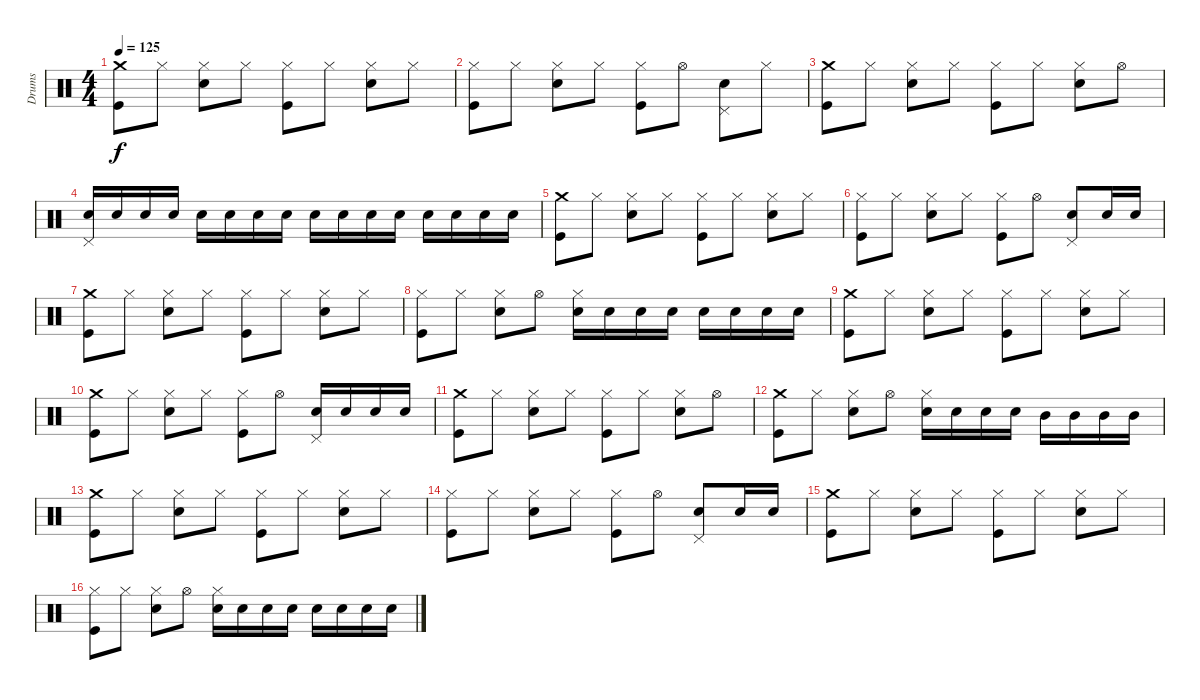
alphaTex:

\track ("Drums" "Drums") {instrument percussion}
\staff {score}
\articulation defaults
\ts (4 4)
\tempo 125
\clef neutral
\ks c
("Crash medium (hit)" "Kick (hit)").8{dy f} "Hi-Hat (closed)".8 ("Hi-Hat (closed)" "Electric Snare (hit)").8 "Hi-Hat (closed)".8 ("Hi-Hat (closed)" "Kick (hit)").8 "Hi-Hat (closed)".8 ("Hi-Hat (closed)" "Electric Snare (hit)").8 "Hi-Hat (closed)".8 |
("Hi-Hat (closed)" "Kick (hit)").8 "Hi-Hat (closed)".8 ("Hi-Hat (closed)" "Electric Snare (hit)").8 "Hi-Hat (closed)".8 ("Hi-Hat (closed)" "Kick (hit)").8 "Hi-Hat (open)".8 ("Pedal Hi-Hat (hit)" "Electric Snare (hit)").8 "Hi-Hat (closed)".8 |
("Crash medium (hit)" "Kick (hit)").8 "Hi-Hat (closed)".8 ("Hi-Hat (closed)" "Electric Snare (hit)").8 "Hi-Hat (closed)".8 ("Hi-Hat (closed)" "Kick (hit)").8 "Hi-Hat (closed)".8 ("Hi-Hat (closed)" "Electric Snare (hit)").8 "Hi-Hat (open)".8 |
("Pedal Hi-Hat (hit)" "Electric Snare (hit)").16 "Electric Snare (hit)".16 "Electric Snare (hit)".16 "Electric Snare (hit)".16 "Electric Snare (hit)".16 "Electric Snare (hit)".16 "Electric Snare (hit)".16 "Electric Snare (hit)".16 "Electric Snare (hit)".16 "Electric Snare (hit)".16 "Electric Snare (hit)".16 "Electric Snare (hit)".16 "Electric Snare (hit)".16 "Electric Snare (hit)".16 "Electric Snare (hit)".16 "Electric Snare (hit)".16 |
("Crash medium (hit)" "Kick (hit)").8 "Hi-Hat (closed)".8 ("Hi-Hat (closed)" "Electric Snare (hit)").8 "Hi-Hat (closed)".8 ("Hi-Hat (closed)" "Kick (hit)").8 "Hi-Hat (closed)".8 ("Hi-Hat (closed)" "Electric Snare (hit)").8 "Hi-Hat (closed)".8 |
("Hi-Hat (closed)" "Kick (hit)").8 "Hi-Hat (closed)".8 ("Hi-Hat (closed)" "Electric Snare (hit)").8 "Hi-Hat (closed)".8 ("Hi-Hat (closed)" "Kick (hit)").8 "Hi-Hat (open)".8 ("Pedal Hi-Hat (hit)" "Electric Snare (hit)").8 "Electric Snare (hit)".16 "Electric Snare (hit)".16 |
("Crash medium (hit)" "Kick (hit)").8 "Hi-Hat (closed)".8 ("Hi-Hat (closed)" "Electric Snare (hit)").8 "Hi-Hat (closed)".8 ("Hi-Hat (closed)" "Kick (hit)").8 "Hi-Hat (closed)".8 ("Hi-Hat (closed)" "Electric Snare (hit)").8 "Hi-Hat (closed)".8 |
("Hi-Hat (closed)" "Kick (hit)").8 "Hi-Hat (closed)".8 ("Hi-Hat (closed)" "Electric Snare (hit)").8 "Hi-Hat (open)".8 ("Hi-Hat (closed)" "Electric Snare (hit)").16 "Electric Snare (hit)".16 "Electric Snare (hit)".16 "Electric Snare (hit)".16 "Electric Snare (hit)".16 "Electric Snare (hit)".16 "Electric Snare (hit)".16 "Electric Snare (hit)".16 |
("Crash medium (hit)" "Kick (hit)").8 "Hi-Hat (closed)".8 ("Hi-Hat (closed)" "Electric Snare (hit)").8 "Hi-Hat (closed)".8 ("Hi-Hat (closed)" "Kick (hit)").8 "Hi-Hat (closed)".8 ("Hi-Hat (closed)" "Electric Snare (hit)").8 "Hi-Hat (closed)".8 |
("Crash medium (hit)" "Kick (hit)").8 "Hi-Hat (closed)".8 ("Hi-Hat (closed)" "Electric Snare (hit)").8 "Hi-Hat (closed)".8 ("Hi-Hat (closed)" "Kick (hit)").8 "Hi-Hat (open)".8 ("Pedal Hi-Hat (hit)" "Electric Snare (hit)").16 "Electric Snare (hit)".16 "Electric Snare (hit)".16 "Electric Snare (hit)".16 |
("Crash medium (hit)" "Kick (hit)").8 "Hi-Hat (closed)".8 ("Hi-Hat (closed)" "Electric Snare (hit)").8 "Hi-Hat (closed)".8 ("Hi-Hat (closed)" "Kick (hit)").8 "Hi-Hat (closed)".8 ("Hi-Hat (closed)" "Electric Snare (hit)").8 "Hi-Hat (open)".8 |
("Crash medium (hit)" "Kick (hit)").8 "Hi-Hat (closed)".8 ("Hi-Hat (closed)" "Electric Snare (hit)").8 "Hi-Hat (open)".8 ("Hi-Hat (closed)" "Electric Snare (hit)").16 "Electric Snare (hit)".16 "Electric Snare (hit)".16 "Electric Snare (hit)".16 "Mid Tom (hit)".16 "Mid Tom (hit)".16 "Mid Tom (hit)".16 "Mid Tom (hit)".16 |
("Crash medium (hit)" "Kick (hit)").8 "Hi-Hat (closed)".8 ("Hi-Hat (closed)" "Electric Snare (hit)").8 "Hi-Hat (closed)".8 ("Hi-Hat (closed)" "Kick (hit)").8 "Hi-Hat (closed)".8 ("Hi-Hat (closed)" "Electric Snare (hit)").8 "Hi-Hat (closed)".8 |
("Hi-Hat (closed)" "Kick (hit)").8 "Hi-Hat (closed)".8 ("Hi-Hat (closed)" "Electric Snare (hit)").8 "Hi-Hat (closed)".8 ("Hi-Hat (closed)" "Kick (hit)").8 "Hi-Hat (open)".8 ("Pedal Hi-Hat (hit)" "Electric Snare (hit)").8 "Electric Snare (hit)".16 "Electric Snare (hit)".16 |
("Crash medium (hit)" "Kick (hit)").8 "Hi-Hat (closed)".8 ("Hi-Hat (closed)" "Electric Snare (hit)").8 "Hi-Hat (closed)".8 ("Hi-Hat (closed)" "Kick (hit)").8 "Hi-Hat (closed)".8 ("Hi-Hat (closed)" "Electric Snare (hit)").8 "Hi-Hat (closed)".8 |
("Hi-Hat (closed)" "Kick (hit)").8 "Hi-Hat (closed)".8 ("Hi-Hat (closed)" "Electric Snare (hit)").8 "Hi-Hat (open)".8 ("Hi-Hat (closed)" "Electric Snare (hit)").16 "Electric Snare (hit)".16 "Electric Snare (hit)".16 "Electric Snare (hit)".16 "Electric Snare (hit)".16 "Electric Snare (hit)".16 "Electric Snare (hit)".16 "Electric Snare (hit)".16
